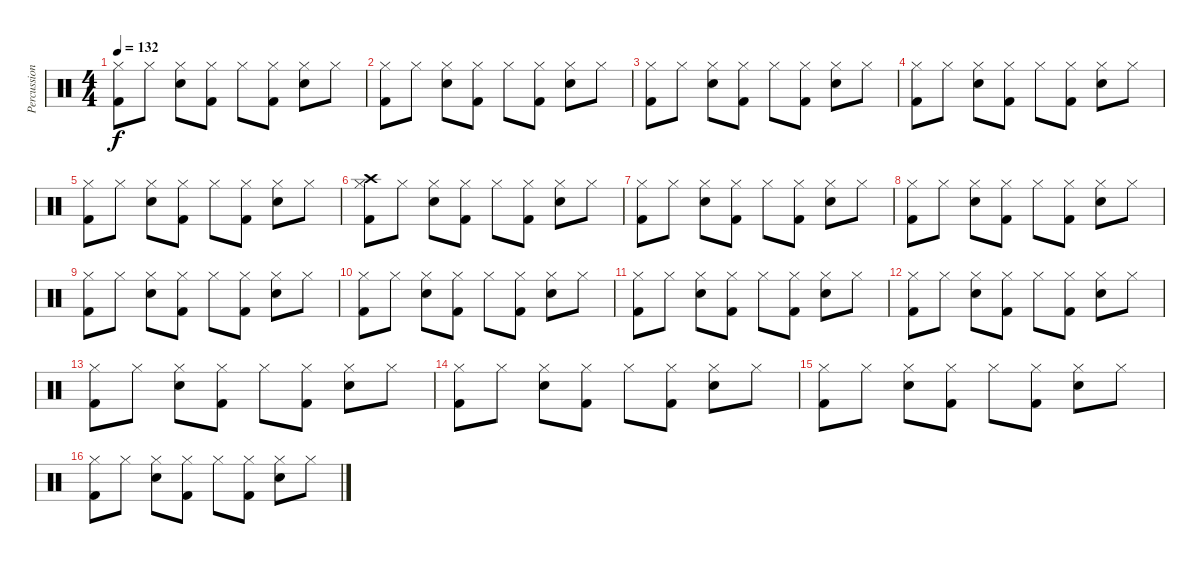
\track ("Percussion" "Percussion") {instrument percussion}
\staff {score}
\articulation defaults
\ts (4 4)
\tempo 132
\clef neutral
\ks c
("Hi-Hat (closed)" "Kick (hit) 2").8{dy f} "Hi-Hat (closed)".8 ("Hi-Hat (closed)" "Snare (hit) 2").8 ("Hi-Hat (closed)" "Kick (hit) 2").8 "Hi-Hat (closed)".8 ("Hi-Hat (closed)" "Kick (hit) 2").8 ("Hi-Hat (closed)" "Snare (hit) 2").8 "Hi-Hat (closed)".8 |
("Hi-Hat (closed)" "Kick (hit) 2").8 "Hi-Hat (closed)".8 ("Hi-Hat (closed)" "Snare (hit) 2").8 ("Hi-Hat (closed)" "Kick (hit) 2").8 "Hi-Hat (closed)".8 ("Hi-Hat (closed)" "Kick (hit) 2").8 ("Hi-Hat (closed)" "Snare (hit) 2").8 "Hi-Hat (closed)".8 |
("Hi-Hat (closed)" "Kick (hit) 2").8 "Hi-Hat (closed)".8 ("Hi-Hat (closed)" "Snare (hit) 2").8 ("Hi-Hat (closed)" "Kick (hit) 2").8 "Hi-Hat (closed)".8 ("Hi-Hat (closed)" "Kick (hit) 2").8 ("Hi-Hat (closed)" "Snare (hit) 2").8 "Hi-Hat (closed)".8 |
("Hi-Hat (closed)" "Kick (hit) 2").8 "Hi-Hat (closed)".8 ("Hi-Hat (closed)" "Snare (hit) 2").8 ("Hi-Hat (closed)" "Kick (hit) 2").8 "Hi-Hat (closed)".8 ("Hi-Hat (closed)" "Kick (hit) 2").8 ("Hi-Hat (closed)" "Snare (hit) 2").8 "Hi-Hat (closed)".8 |
("Hi-Hat (closed)" "Kick (hit) 2").8 "Hi-Hat (closed)".8 ("Hi-Hat (closed)" "Snare (hit) 2").8 ("Hi-Hat (closed)" "Kick (hit) 2").8 "Hi-Hat (closed)".8 ("Hi-Hat (closed)" "Kick (hit) 2").8 ("Hi-Hat (closed)" "Snare (hit) 2").8 "Hi-Hat (closed)".8 |
("Crash high (hit)" "Hi-Hat (closed)" "Kick (hit) 2").8 "Hi-Hat (closed)".8 ("Hi-Hat (closed)" "Snare (hit) 2").8 ("Hi-Hat (closed)" "Kick (hit) 2").8 "Hi-Hat (closed)".8 ("Hi-Hat (closed)" "Kick (hit) 2").8 ("Hi-Hat (closed)" "Snare (hit) 2").8 "Hi-Hat (closed)".8 |
("Hi-Hat (closed)" "Kick (hit) 2").8 "Hi-Hat (closed)".8 ("Hi-Hat (closed)" "Snare (hit) 2").8 ("Hi-Hat (closed)" "Kick (hit) 2").8 "Hi-Hat (closed)".8 ("Hi-Hat (closed)" "Kick (hit) 2").8 ("Hi-Hat (closed)" "Snare (hit) 2").8 "Hi-Hat (closed)".8 |
("Hi-Hat (closed)" "Kick (hit) 2").8 "Hi-Hat (closed)".8 ("Hi-Hat (closed)" "Snare (hit) 2").8 ("Hi-Hat (closed)" "Kick (hit) 2").8 "Hi-Hat (closed)".8 ("Hi-Hat (closed)" "Kick (hit) 2").8 ("Hi-Hat (closed)" "Snare (hit) 2").8 "Hi-Hat (closed)".8 |
("Hi-Hat (closed)" "Kick (hit) 2").8 "Hi-Hat (closed)".8 ("Hi-Hat (closed)" "Snare (hit) 2").8 ("Hi-Hat (closed)" "Kick (hit) 2").8 "Hi-Hat (closed)".8 ("Hi-Hat (closed)" "Kick (hit) 2").8 ("Hi-Hat (closed)" "Snare (hit) 2").8 "Hi-Hat (closed)".8 |
("Hi-Hat (closed)" "Kick (hit) 2").8 "Hi-Hat (closed)".8 ("Hi-Hat (closed)" "Snare (hit) 2").8 ("Hi-Hat (closed)" "Kick (hit) 2").8 "Hi-Hat (closed)".8 ("Hi-Hat (closed)" "Kick (hit) 2").8 ("Hi-Hat (closed)" "Snare (hit) 2").8 "Hi-Hat (closed)".8 |
("Hi-Hat (closed)" "Kick (hit) 2").8 "Hi-Hat (closed)".8 ("Hi-Hat (closed)" "Snare (hit) 2").8 ("Hi-Hat (closed)" "Kick (hit) 2").8 "Hi-Hat (closed)".8 ("Hi-Hat (closed)" "Kick (hit) 2").8 ("Hi-Hat (closed)" "Snare (hit) 2").8 "Hi-Hat (closed)".8 |
("Hi-Hat (closed)" "Kick (hit) 2").8 "Hi-Hat (closed)".8 ("Hi-Hat (closed)" "Snare (hit) 2").8 ("Hi-Hat (closed)" "Kick (hit) 2").8 "Hi-Hat (closed)".8 ("Hi-Hat (closed)" "Kick (hit) 2").8 ("Hi-Hat (closed)" "Snare (hit) 2").8 "Hi-Hat (closed)".8 |
("Hi-Hat (closed)" "Kick (hit) 2").8 "Hi-Hat (closed)".8 ("Hi-Hat (closed)" "Snare (hit) 2").8 ("Hi-Hat (closed)" "Kick (hit) 2").8 "Hi-Hat (closed)".8 ("Hi-Hat (closed)" "Kick (hit) 2").8 ("Hi-Hat (closed)" "Snare (hit) 2").8 "Hi-Hat (closed)".8 |
("Hi-Hat (closed)" "Kick (hit) 2").8 "Hi-Hat (closed)".8 ("Hi-Hat (closed)" "Snare (hit) 2").8 ("Hi-Hat (closed)" "Kick (hit) 2").8 "Hi-Hat (closed)".8 ("Hi-Hat (closed)" "Kick (hit) 2").8 ("Hi-Hat (closed)" "Snare (hit) 2").8 "Hi-Hat (closed)".8 |
("Hi-Hat (closed)" "Kick (hit) 2").8 "Hi-Hat (closed)".8 ("Hi-Hat (closed)" "Snare (hit) 2").8 ("Hi-Hat (closed)" "Kick (hit) 2").8 "Hi-Hat (closed)".8 ("Hi-Hat (closed)" "Kick (hit) 2").8 ("Hi-Hat (closed)" "Snare (hit) 2").8 "Hi-Hat (closed)".8 |
("Hi-Hat (closed)" "Kick (hit) 2").8 "Hi-Hat (closed)".8 ("Hi-Hat (closed)" "Snare (hit) 2").8 ("Hi-Hat (closed)" "Kick (hit) 2").8 "Hi-Hat (closed)".8 ("Hi-Hat (closed)" "Kick (hit) 2").8 ("Hi-Hat (closed)" "Snare (hit) 2").8 "Hi-Hat (closed)".8
